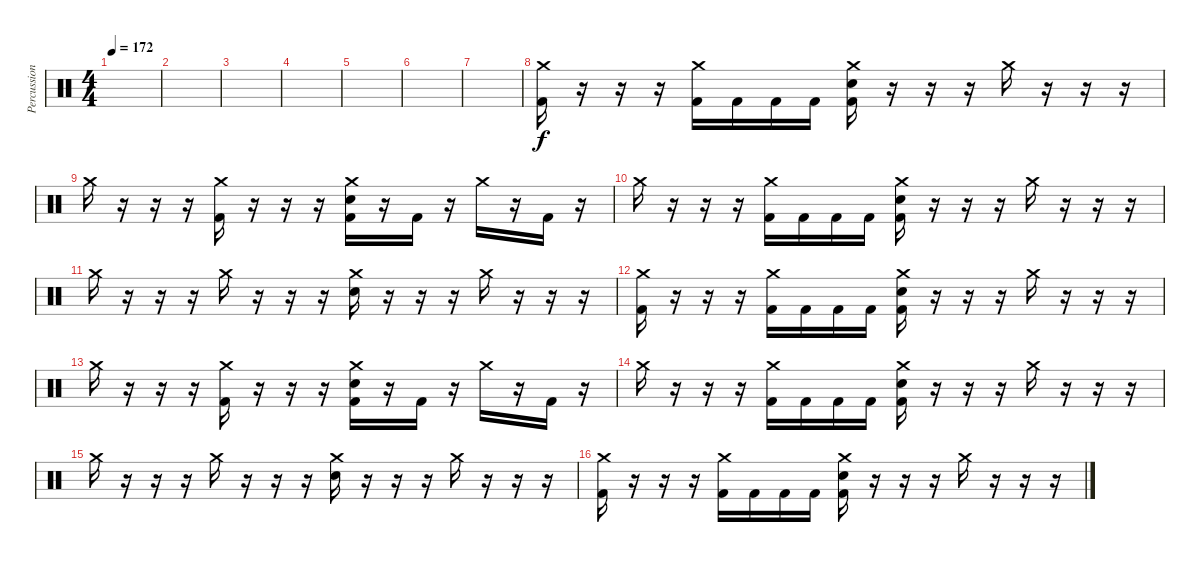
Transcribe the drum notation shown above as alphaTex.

\track ("Percussion" "Percussion") {instrument percussion}
\staff {score}
\articulation defaults
\ts (4 4)
\tempo 172
\clef neutral
\ks c
|
|
|
|
|
|
|
("Crash medium (hit)" "Kick (hit) 2").16 r.16 r.16 r.16 ("Crash medium (hit)" "Kick (hit) 2").16 "Kick (hit) 2".16 "Kick (hit) 2".16 "Kick (hit) 2".16 ("Crash medium (hit)" "Electric Snare (hit)" "Kick (hit) 2").16 r.16 r.16 r.16 "Crash medium (hit)".16 r.16 r.16 r.16 |
"Crash medium (hit)".16 r.16 r.16 r.16 ("Crash medium (hit)" "Kick (hit) 2").16 r.16 r.16 r.16 ("Crash medium (hit)" "Electric Snare (hit)" "Kick (hit) 2").16 r.16 "Kick (hit) 2".16 r.16 "Crash medium (hit)".16 r.16 "Kick (hit) 2".16 r.16 |
"Crash medium (hit)".16 r.16 r.16 r.16 ("Crash medium (hit)" "Kick (hit) 2").16 "Kick (hit) 2".16 "Kick (hit) 2".16 "Kick (hit) 2".16 ("Crash medium (hit)" "Electric Snare (hit)" "Kick (hit) 2").16 r.16 r.16 r.16 "Crash medium (hit)".16 r.16 r.16 r.16 |
"Crash medium (hit)".16 r.16 r.16 r.16 "Crash medium (hit)".16 r.16 r.16 r.16 ("Crash medium (hit)" "Electric Snare (hit)").16 r.16 r.16 r.16 "Crash medium (hit)".16 r.16 r.16 r.16 |
("Crash medium (hit)" "Kick (hit) 2").16 r.16 r.16 r.16 ("Crash medium (hit)" "Kick (hit) 2").16 "Kick (hit) 2".16 "Kick (hit) 2".16 "Kick (hit) 2".16 ("Crash medium (hit)" "Electric Snare (hit)" "Kick (hit) 2").16 r.16 r.16 r.16 "Crash medium (hit)".16 r.16 r.16 r.16 |
"Crash medium (hit)".16 r.16 r.16 r.16 ("Crash medium (hit)" "Kick (hit) 2").16 r.16 r.16 r.16 ("Crash medium (hit)" "Electric Snare (hit)" "Kick (hit) 2").16 r.16 "Kick (hit) 2".16 r.16 "Crash medium (hit)".16 r.16 "Kick (hit) 2".16 r.16 |
"Crash medium (hit)".16 r.16 r.16 r.16 ("Crash medium (hit)" "Kick (hit) 2").16 "Kick (hit) 2".16 "Kick (hit) 2".16 "Kick (hit) 2".16 ("Crash medium (hit)" "Electric Snare (hit)" "Kick (hit) 2").16 r.16 r.16 r.16 "Crash medium (hit)".16 r.16 r.16 r.16 |
"Crash medium (hit)".16 r.16 r.16 r.16 "Crash medium (hit)".16 r.16 r.16 r.16 ("Crash medium (hit)" "Electric Snare (hit)").16 r.16 r.16 r.16 "Crash medium (hit)".16 r.16 r.16 r.16 |
("Crash medium (hit)" "Kick (hit) 2").16 r.16 r.16 r.16 ("Crash medium (hit)" "Kick (hit) 2").16 "Kick (hit) 2".16 "Kick (hit) 2".16 "Kick (hit) 2".16 ("Crash medium (hit)" "Electric Snare (hit)" "Kick (hit) 2").16 r.16 r.16 r.16 "Crash medium (hit)".16 r.16 r.16 r.16
